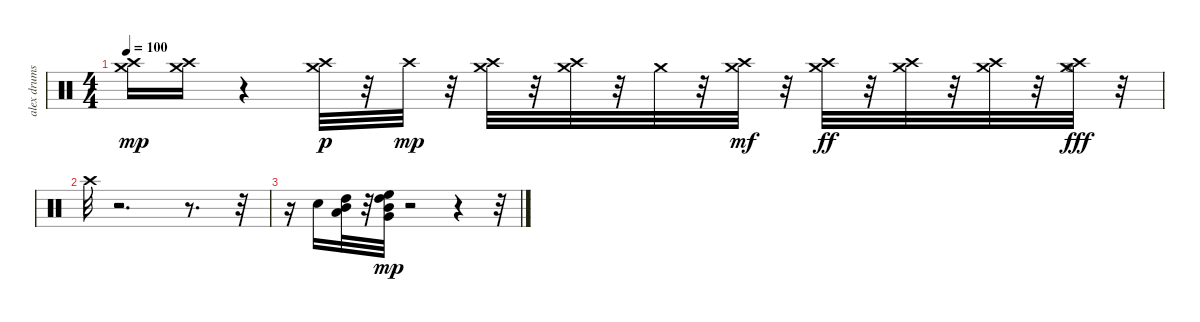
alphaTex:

\track ("alex drums" "alex drums") {instrument percussion}
\staff {score}
\articulation defaults
\ts (4 4)
\tempo 100
\clef neutral
\ks c
("Crash high (hit)" "Crash medium (hit)").16{dy mp} ("Crash high (hit)" "Crash medium (hit)").16 r.4 ("Crash medium (hit)" "Crash high (hit)").32{dy p} r.32 "Crash high (hit)".32{dy mp} r.32 ("Crash high (hit)" "Crash medium (hit)").32 r.32 ("Crash high (hit)" "Crash medium (hit)").32 r.32 "Crash medium (hit)".32 r.32 ("Crash medium (hit)" "Crash high (hit)").32{dy mf} r.32 ("Crash medium (hit)" "Crash high (hit)").32{dy ff} r.32 ("Crash medium (hit)" "Crash high (hit)").32 r.32 ("Crash medium (hit)" "Crash high (hit)").32 r.32 ("Crash medium (hit)" "Hi-Hat (open)" "Crash high (hit)").32{dy fff} r.32 |
"Crash high (hit)".32 r.2{d} r.8{d} r.32 |
r.16 "Electric Snare (hit)".16 ("High Tom (hit)" "Mid Tom (hit)" "Low Tom (hit)").32 r.32 ("High Tom (hit)" "Mid Tom (hit)" "Very Low Tom (hit)" "High Floor Tom (hit)").32{dy mp} r.2 r.4 r.32
